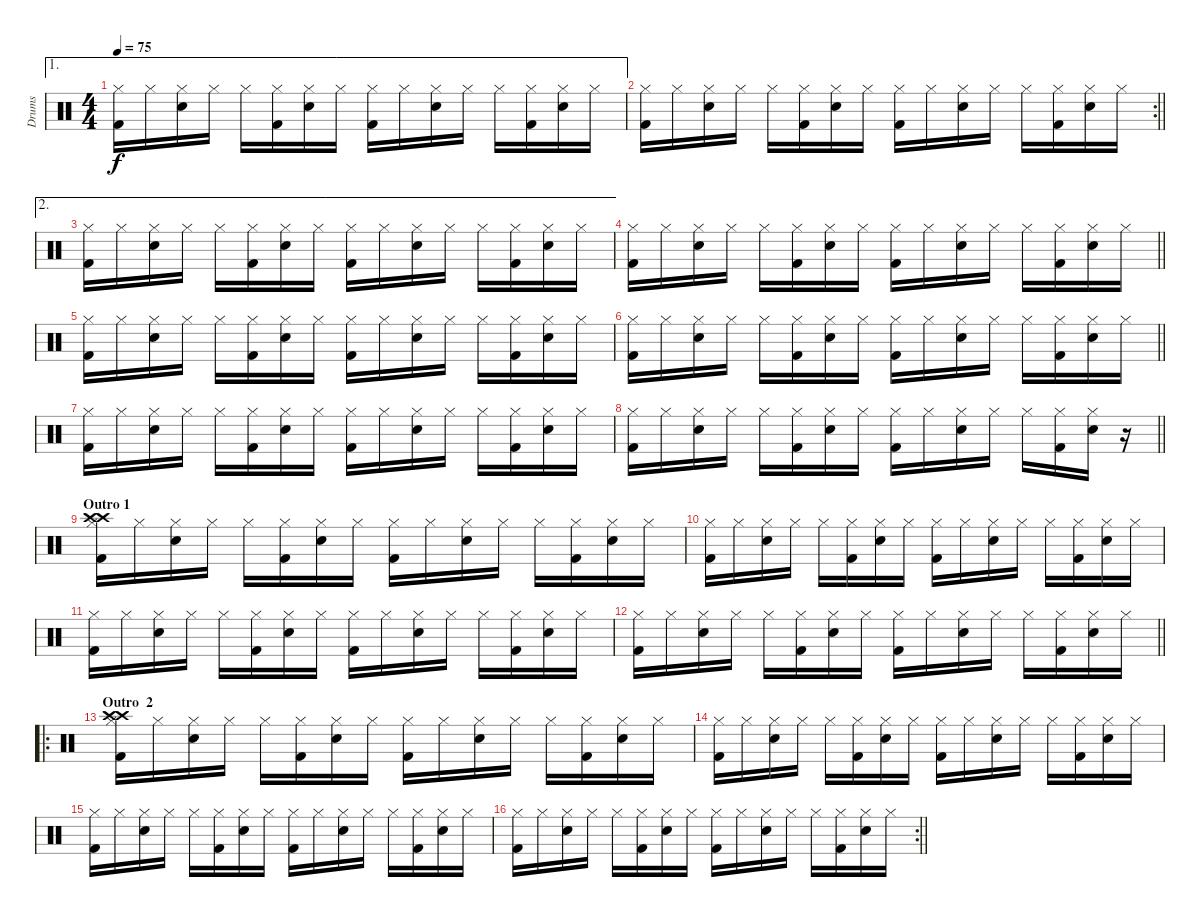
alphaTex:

\track ("Drums" "Drums") {instrument percussion}
\staff {score}
\articulation defaults
\ae 1
\ts (4 4)
\tempo 75
\clef neutral
\ks c
("Hi-Hat (closed)" "Kick (hit) 2").16{dy f} "Hi-Hat (closed)".16 ("Hi-Hat (closed)" "Snare (hit) 2").16 "Hi-Hat (closed)".16 "Hi-Hat (closed)".16 ("Hi-Hat (closed)" "Kick (hit) 2").16 ("Hi-Hat (closed)" "Snare (hit) 2").16 "Hi-Hat (closed)".16 ("Hi-Hat (closed)" "Kick (hit) 2").16 "Hi-Hat (closed)".16 ("Hi-Hat (closed)" "Snare (hit) 2").16 "Hi-Hat (closed)".16 "Hi-Hat (closed)".16 ("Hi-Hat (closed)" "Kick (hit) 2").16 ("Hi-Hat (closed)" "Snare (hit) 2").16 "Hi-Hat (closed)".16 |
\rc 2
\barLineRight lightlight
("Hi-Hat (closed)" "Kick (hit) 2").16 "Hi-Hat (closed)".16 ("Hi-Hat (closed)" "Snare (hit) 2").16 "Hi-Hat (closed)".16 "Hi-Hat (closed)".16 ("Hi-Hat (closed)" "Kick (hit) 2").16 ("Hi-Hat (closed)" "Snare (hit) 2").16 "Hi-Hat (closed)".16 ("Hi-Hat (closed)" "Kick (hit) 2").16 "Hi-Hat (closed)".16 ("Hi-Hat (closed)" "Snare (hit) 2").16 "Hi-Hat (closed)".16 "Hi-Hat (closed)".16 ("Hi-Hat (closed)" "Kick (hit) 2").16 ("Hi-Hat (closed)" "Snare (hit) 2").16 "Hi-Hat (closed)".16 |
\ae 2
("Hi-Hat (closed)" "Kick (hit) 2").16 "Hi-Hat (closed)".16 ("Hi-Hat (closed)" "Snare (hit) 2").16 "Hi-Hat (closed)".16 "Hi-Hat (closed)".16 ("Hi-Hat (closed)" "Kick (hit) 2").16 ("Hi-Hat (closed)" "Snare (hit) 2").16 "Hi-Hat (closed)".16 ("Hi-Hat (closed)" "Kick (hit) 2").16 "Hi-Hat (closed)".16 ("Hi-Hat (closed)" "Snare (hit) 2").16 "Hi-Hat (closed)".16 "Hi-Hat (closed)".16 ("Hi-Hat (closed)" "Kick (hit) 2").16 ("Hi-Hat (closed)" "Snare (hit) 2").16 "Hi-Hat (closed)".16 |
\barLineRight lightlight
("Hi-Hat (closed)" "Kick (hit) 2").16 "Hi-Hat (closed)".16 ("Hi-Hat (closed)" "Snare (hit) 2").16 "Hi-Hat (closed)".16 "Hi-Hat (closed)".16 ("Hi-Hat (closed)" "Kick (hit) 2").16 ("Hi-Hat (closed)" "Snare (hit) 2").16 "Hi-Hat (closed)".16 ("Hi-Hat (closed)" "Kick (hit) 2").16 "Hi-Hat (closed)".16 ("Hi-Hat (closed)" "Snare (hit) 2").16 "Hi-Hat (closed)".16 "Hi-Hat (closed)".16 ("Hi-Hat (closed)" "Kick (hit) 2").16 ("Hi-Hat (closed)" "Snare (hit) 2").16 "Hi-Hat (closed)".16 |
("Hi-Hat (closed)" "Kick (hit) 2").16 "Hi-Hat (closed)".16 ("Hi-Hat (closed)" "Snare (hit) 2").16 "Hi-Hat (closed)".16 "Hi-Hat (closed)".16 ("Hi-Hat (closed)" "Kick (hit) 2").16 ("Hi-Hat (closed)" "Snare (hit) 2").16 "Hi-Hat (closed)".16 ("Hi-Hat (closed)" "Kick (hit) 2").16 "Hi-Hat (closed)".16 ("Hi-Hat (closed)" "Snare (hit) 2").16 "Hi-Hat (closed)".16 "Hi-Hat (closed)".16 ("Hi-Hat (closed)" "Kick (hit) 2").16 ("Hi-Hat (closed)" "Snare (hit) 2").16 "Hi-Hat (closed)".16 |
\barLineRight lightlight
("Hi-Hat (closed)" "Kick (hit) 2").16 "Hi-Hat (closed)".16 ("Hi-Hat (closed)" "Snare (hit) 2").16 "Hi-Hat (closed)".16 "Hi-Hat (closed)".16 ("Hi-Hat (closed)" "Kick (hit) 2").16 ("Hi-Hat (closed)" "Snare (hit) 2").16 "Hi-Hat (closed)".16 ("Hi-Hat (closed)" "Kick (hit) 2").16 "Hi-Hat (closed)".16 ("Hi-Hat (closed)" "Snare (hit) 2").16 "Hi-Hat (closed)".16 "Hi-Hat (closed)".16 ("Hi-Hat (closed)" "Kick (hit) 2").16 ("Hi-Hat (closed)" "Snare (hit) 2").16 "Hi-Hat (closed)".16 |
("Hi-Hat (closed)" "Kick (hit) 2").16 "Hi-Hat (closed)".16 ("Hi-Hat (closed)" "Snare (hit) 2").16 "Hi-Hat (closed)".16 "Hi-Hat (closed)".16 ("Hi-Hat (closed)" "Kick (hit) 2").16 ("Hi-Hat (closed)" "Snare (hit) 2").16 "Hi-Hat (closed)".16 ("Hi-Hat (closed)" "Kick (hit) 2").16 "Hi-Hat (closed)".16 ("Hi-Hat (closed)" "Snare (hit) 2").16 "Hi-Hat (closed)".16 "Hi-Hat (closed)".16 ("Hi-Hat (closed)" "Kick (hit) 2").16 ("Hi-Hat (closed)" "Snare (hit) 2").16 "Hi-Hat (closed)".16 |
\barLineRight lightlight
("Hi-Hat (closed)" "Kick (hit) 2").16 "Hi-Hat (closed)".16 ("Hi-Hat (closed)" "Snare (hit) 2").16 "Hi-Hat (closed)".16 "Hi-Hat (closed)".16 ("Hi-Hat (closed)" "Kick (hit) 2").16 ("Hi-Hat (closed)" "Snare (hit) 2").16 "Hi-Hat (closed)".16 ("Hi-Hat (closed)" "Kick (hit) 2").16 "Hi-Hat (closed)".16 ("Hi-Hat (closed)" "Snare (hit) 2").16 "Hi-Hat (closed)".16 "Hi-Hat (closed)".16 ("Hi-Hat (closed)" "Kick (hit) 2").16 ("Hi-Hat (closed)" "Snare (hit) 2").16 r.16 |
\section ("" "Outro 1")
("Hi-Hat (closed)" "Crash high (hit)" "Kick (hit) 2" "Crash high (hit)").16 "Hi-Hat (closed)".16 ("Hi-Hat (closed)" "Snare (hit) 2").16 "Hi-Hat (closed)".16 "Hi-Hat (closed)".16 ("Hi-Hat (closed)" "Kick (hit) 2").16 ("Hi-Hat (closed)" "Snare (hit) 2").16 "Hi-Hat (closed)".16 ("Hi-Hat (closed)" "Kick (hit) 2").16 "Hi-Hat (closed)".16 ("Hi-Hat (closed)" "Snare (hit) 2").16 "Hi-Hat (closed)".16 "Hi-Hat (closed)".16 ("Hi-Hat (closed)" "Kick (hit) 2").16 ("Hi-Hat (closed)" "Snare (hit) 2").16 "Hi-Hat (closed)".16 |
("Hi-Hat (closed)" "Kick (hit) 2").16 "Hi-Hat (closed)".16 ("Hi-Hat (closed)" "Snare (hit) 2").16 "Hi-Hat (closed)".16 "Hi-Hat (closed)".16 ("Hi-Hat (closed)" "Kick (hit) 2").16 ("Hi-Hat (closed)" "Snare (hit) 2").16 "Hi-Hat (closed)".16 ("Hi-Hat (closed)" "Kick (hit) 2").16 "Hi-Hat (closed)".16 ("Hi-Hat (closed)" "Snare (hit) 2").16 "Hi-Hat (closed)".16 "Hi-Hat (closed)".16 ("Hi-Hat (closed)" "Kick (hit) 2").16 ("Hi-Hat (closed)" "Snare (hit) 2").16 "Hi-Hat (closed)".16 |
("Hi-Hat (closed)" "Kick (hit) 2").16 "Hi-Hat (closed)".16 ("Hi-Hat (closed)" "Snare (hit) 2").16 "Hi-Hat (closed)".16 "Hi-Hat (closed)".16 ("Hi-Hat (closed)" "Kick (hit) 2").16 ("Hi-Hat (closed)" "Snare (hit) 2").16 "Hi-Hat (closed)".16 ("Hi-Hat (closed)" "Kick (hit) 2").16 "Hi-Hat (closed)".16 ("Hi-Hat (closed)" "Snare (hit) 2").16 "Hi-Hat (closed)".16 "Hi-Hat (closed)".16 ("Hi-Hat (closed)" "Kick (hit) 2").16 ("Hi-Hat (closed)" "Snare (hit) 2").16 "Hi-Hat (closed)".16 |
\barLineRight lightlight
("Hi-Hat (closed)" "Kick (hit) 2").16 "Hi-Hat (closed)".16 ("Hi-Hat (closed)" "Snare (hit) 2").16 "Hi-Hat (closed)".16 "Hi-Hat (closed)".16 ("Hi-Hat (closed)" "Kick (hit) 2").16 ("Hi-Hat (closed)" "Snare (hit) 2").16 "Hi-Hat (closed)".16 ("Hi-Hat (closed)" "Kick (hit) 2").16 "Hi-Hat (closed)".16 ("Hi-Hat (closed)" "Snare (hit) 2").16 "Hi-Hat (closed)".16 "Hi-Hat (closed)".16 ("Hi-Hat (closed)" "Kick (hit) 2").16 ("Hi-Hat (closed)" "Snare (hit) 2").16 "Hi-Hat (closed)".16 |
\ro
\section ("" "Outro  2")
("Hi-Hat (closed)" "Crash high (hit)" "Kick (hit) 2" "Crash high (hit)").16 "Hi-Hat (closed)".16 ("Hi-Hat (closed)" "Snare (hit) 2").16 "Hi-Hat (closed)".16 "Hi-Hat (closed)".16 ("Hi-Hat (closed)" "Kick (hit) 2").16 ("Hi-Hat (closed)" "Snare (hit) 2").16 "Hi-Hat (closed)".16 ("Hi-Hat (closed)" "Kick (hit) 2").16 "Hi-Hat (closed)".16 ("Hi-Hat (closed)" "Snare (hit) 2").16 "Hi-Hat (closed)".16 "Hi-Hat (closed)".16 ("Hi-Hat (closed)" "Kick (hit) 2").16 ("Hi-Hat (closed)" "Snare (hit) 2").16 "Hi-Hat (closed)".16 |
("Hi-Hat (closed)" "Kick (hit) 2").16 "Hi-Hat (closed)".16 ("Hi-Hat (closed)" "Snare (hit) 2").16 "Hi-Hat (closed)".16 "Hi-Hat (closed)".16 ("Hi-Hat (closed)" "Kick (hit) 2").16 ("Hi-Hat (closed)" "Snare (hit) 2").16 "Hi-Hat (closed)".16 ("Hi-Hat (closed)" "Kick (hit) 2").16 "Hi-Hat (closed)".16 ("Hi-Hat (closed)" "Snare (hit) 2").16 "Hi-Hat (closed)".16 "Hi-Hat (closed)".16 ("Hi-Hat (closed)" "Kick (hit) 2").16 ("Hi-Hat (closed)" "Snare (hit) 2").16 "Hi-Hat (closed)".16 |
("Hi-Hat (closed)" "Kick (hit) 2").16 "Hi-Hat (closed)".16 ("Hi-Hat (closed)" "Snare (hit) 2").16 "Hi-Hat (closed)".16 "Hi-Hat (closed)".16 ("Hi-Hat (closed)" "Kick (hit) 2").16 ("Hi-Hat (closed)" "Snare (hit) 2").16 "Hi-Hat (closed)".16 ("Hi-Hat (closed)" "Kick (hit) 2").16 "Hi-Hat (closed)".16 ("Hi-Hat (closed)" "Snare (hit) 2").16 "Hi-Hat (closed)".16 "Hi-Hat (closed)".16 ("Hi-Hat (closed)" "Kick (hit) 2").16 ("Hi-Hat (closed)" "Snare (hit) 2").16 "Hi-Hat (closed)".16 |
\rc 2
\barLineRight lightlight
("Hi-Hat (closed)" "Kick (hit) 2").16 "Hi-Hat (closed)".16 ("Hi-Hat (closed)" "Snare (hit) 2").16 "Hi-Hat (closed)".16 "Hi-Hat (closed)".16 ("Hi-Hat (closed)" "Kick (hit) 2").16 ("Hi-Hat (closed)" "Snare (hit) 2").16 "Hi-Hat (closed)".16 ("Hi-Hat (closed)" "Kick (hit) 2").16 "Hi-Hat (closed)".16 ("Hi-Hat (closed)" "Snare (hit) 2").16 "Hi-Hat (closed)".16 "Hi-Hat (closed)".16 ("Hi-Hat (closed)" "Kick (hit) 2").16 ("Hi-Hat (closed)" "Snare (hit) 2").16 "Hi-Hat (closed)".16
